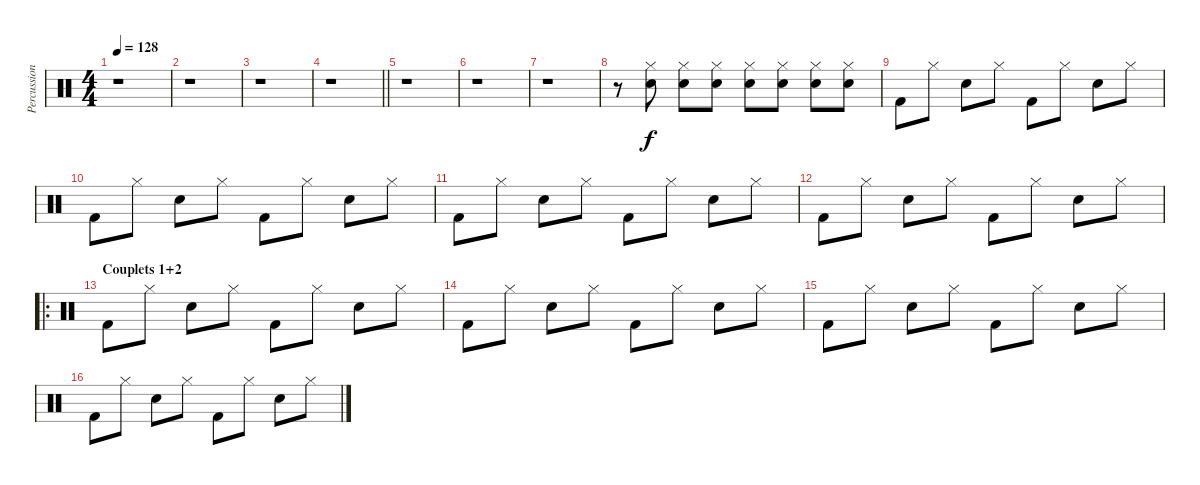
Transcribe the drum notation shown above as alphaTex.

\track ("Percussions" "Percussion") {instrument percussion}
\staff {score}
\articulation defaults
\ts (4 4)
\tempo 128
\clef neutral
\ks c
r.1{dy f} |
r.1 |
r.1 |
\barLineRight lightlight
r.1 |
r.1 |
r.1 |
r.1 |
r.8 ("Hi-Hat (closed)" "Electric Snare (hit)").8 ("Hi-Hat (closed)" "Electric Snare (hit)").8 ("Hi-Hat (closed)" "Electric Snare (hit)").8 ("Hi-Hat (closed)" "Electric Snare (hit)").8 ("Hi-Hat (closed)" "Electric Snare (hit)").8 ("Hi-Hat (closed)" "Electric Snare (hit)").8 ("Hi-Hat (closed)" "Electric Snare (hit)").8 |
"Kick (hit) 2".8 "Hi-Hat (closed)".8 "Electric Snare (hit)".8 "Hi-Hat (closed)".8 "Kick (hit) 2".8 "Hi-Hat (closed)".8 "Electric Snare (hit)".8 "Hi-Hat (closed)".8 |
"Kick (hit) 2".8 "Hi-Hat (closed)".8 "Electric Snare (hit)".8 "Hi-Hat (closed)".8 "Kick (hit) 2".8 "Hi-Hat (closed)".8 "Electric Snare (hit)".8 "Hi-Hat (closed)".8 |
"Kick (hit) 2".8 "Hi-Hat (closed)".8 "Electric Snare (hit)".8 "Hi-Hat (closed)".8 "Kick (hit) 2".8 "Hi-Hat (closed)".8 "Electric Snare (hit)".8 "Hi-Hat (closed)".8 |
"Kick (hit) 2".8 "Hi-Hat (closed)".8 "Electric Snare (hit)".8 "Hi-Hat (closed)".8 "Kick (hit) 2".8 "Hi-Hat (closed)".8 "Electric Snare (hit)".8 "Hi-Hat (closed)".8 |
\ro
\section ("" "Couplets 1+2")
"Kick (hit) 2".8 "Hi-Hat (closed)".8 "Electric Snare (hit)".8 "Hi-Hat (closed)".8 "Kick (hit) 2".8 "Hi-Hat (closed)".8 "Electric Snare (hit)".8 "Hi-Hat (closed)".8 |
"Kick (hit) 2".8 "Hi-Hat (closed)".8 "Electric Snare (hit)".8 "Hi-Hat (closed)".8 "Kick (hit) 2".8 "Hi-Hat (closed)".8 "Electric Snare (hit)".8 "Hi-Hat (closed)".8 |
"Kick (hit) 2".8 "Hi-Hat (closed)".8 "Electric Snare (hit)".8 "Hi-Hat (closed)".8 "Kick (hit) 2".8 "Hi-Hat (closed)".8 "Electric Snare (hit)".8 "Hi-Hat (closed)".8 |
"Kick (hit) 2".8 "Hi-Hat (closed)".8 "Electric Snare (hit)".8 "Hi-Hat (closed)".8 "Kick (hit) 2".8 "Hi-Hat (closed)".8 "Electric Snare (hit)".8 "Hi-Hat (closed)".8
